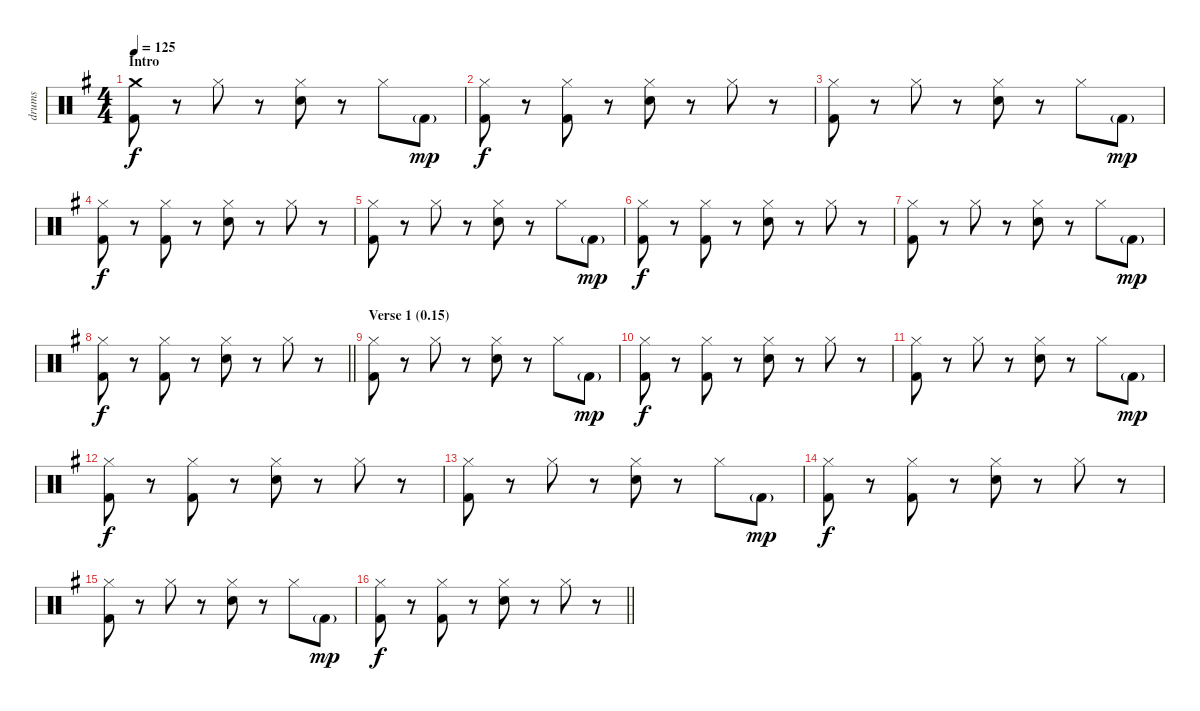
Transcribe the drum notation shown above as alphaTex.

\track ("drums" "drums") {instrument percussion}
\staff {score}
\articulation defaults
\ts (4 4)
\section ("" "Intro")
\tempo 125
\clef neutral
\ks g
("Crash medium (hit)" "Kick (hit) 2").8{dy f} r.8 "Hi-Hat (closed)".8 r.8 ("Hi-Hat (closed)" "Electric Snare (hit)").8 r.8 "Hi-Hat (closed)".8 "Kick (hit) 2"{g}.8{dy mp} |
("Hi-Hat (closed)" "Kick (hit) 2").8{dy f} r.8 ("Hi-Hat (closed)" "Kick (hit) 2").8 r.8 ("Hi-Hat (closed)" "Electric Snare (hit)").8 r.8 "Hi-Hat (closed)".8 r.8 |
("Hi-Hat (closed)" "Kick (hit) 2").8 r.8 "Hi-Hat (closed)".8 r.8 ("Hi-Hat (closed)" "Electric Snare (hit)").8 r.8 "Hi-Hat (closed)".8 "Kick (hit) 2"{g}.8{dy mp} |
("Hi-Hat (closed)" "Kick (hit) 2").8{dy f} r.8 ("Hi-Hat (closed)" "Kick (hit) 2").8 r.8 ("Hi-Hat (closed)" "Electric Snare (hit)").8 r.8 "Hi-Hat (closed)".8 r.8 |
("Hi-Hat (closed)" "Kick (hit) 2").8 r.8 "Hi-Hat (closed)".8 r.8 ("Hi-Hat (closed)" "Electric Snare (hit)").8 r.8 "Hi-Hat (closed)".8 "Kick (hit) 2"{g}.8{dy mp} |
("Hi-Hat (closed)" "Kick (hit) 2").8{dy f} r.8 ("Hi-Hat (closed)" "Kick (hit) 2").8 r.8 ("Hi-Hat (closed)" "Electric Snare (hit)").8 r.8 "Hi-Hat (closed)".8 r.8 |
("Hi-Hat (closed)" "Kick (hit) 2").8 r.8 "Hi-Hat (closed)".8 r.8 ("Hi-Hat (closed)" "Electric Snare (hit)").8 r.8 "Hi-Hat (closed)".8 "Kick (hit) 2"{g}.8{dy mp} |
\barLineRight lightlight
("Hi-Hat (closed)" "Kick (hit) 2").8{dy f} r.8 ("Hi-Hat (closed)" "Kick (hit) 2").8 r.8 ("Hi-Hat (closed)" "Electric Snare (hit)").8 r.8 "Hi-Hat (closed)".8 r.8 |
\section ("" "Verse 1 (0.15)")
("Hi-Hat (closed)" "Kick (hit) 2").8 r.8 "Hi-Hat (closed)".8 r.8 ("Hi-Hat (closed)" "Electric Snare (hit)").8 r.8 "Hi-Hat (closed)".8 "Kick (hit) 2"{g}.8{dy mp} |
("Hi-Hat (closed)" "Kick (hit) 2").8{dy f} r.8 ("Hi-Hat (closed)" "Kick (hit) 2").8 r.8 ("Hi-Hat (closed)" "Electric Snare (hit)").8 r.8 "Hi-Hat (closed)".8 r.8 |
("Hi-Hat (closed)" "Kick (hit) 2").8 r.8 "Hi-Hat (closed)".8 r.8 ("Hi-Hat (closed)" "Electric Snare (hit)").8 r.8 "Hi-Hat (closed)".8 "Kick (hit) 2"{g}.8{dy mp} |
("Hi-Hat (closed)" "Kick (hit) 2").8{dy f} r.8 ("Hi-Hat (closed)" "Kick (hit) 2").8 r.8 ("Hi-Hat (closed)" "Electric Snare (hit)").8 r.8 "Hi-Hat (closed)".8 r.8 |
("Hi-Hat (closed)" "Kick (hit) 2").8 r.8 "Hi-Hat (closed)".8 r.8 ("Hi-Hat (closed)" "Electric Snare (hit)").8 r.8 "Hi-Hat (closed)".8 "Kick (hit) 2"{g}.8{dy mp} |
("Hi-Hat (closed)" "Kick (hit) 2").8{dy f} r.8 ("Hi-Hat (closed)" "Kick (hit) 2").8 r.8 ("Hi-Hat (closed)" "Electric Snare (hit)").8 r.8 "Hi-Hat (closed)".8 r.8 |
("Hi-Hat (closed)" "Kick (hit) 2").8 r.8 "Hi-Hat (closed)".8 r.8 ("Hi-Hat (closed)" "Electric Snare (hit)").8 r.8 "Hi-Hat (closed)".8 "Kick (hit) 2"{g}.8{dy mp} |
\barLineRight lightlight
("Hi-Hat (closed)" "Kick (hit) 2").8{dy f} r.8 ("Hi-Hat (closed)" "Kick (hit) 2").8 r.8 ("Hi-Hat (closed)" "Electric Snare (hit)").8 r.8 "Hi-Hat (closed)".8 r.8
